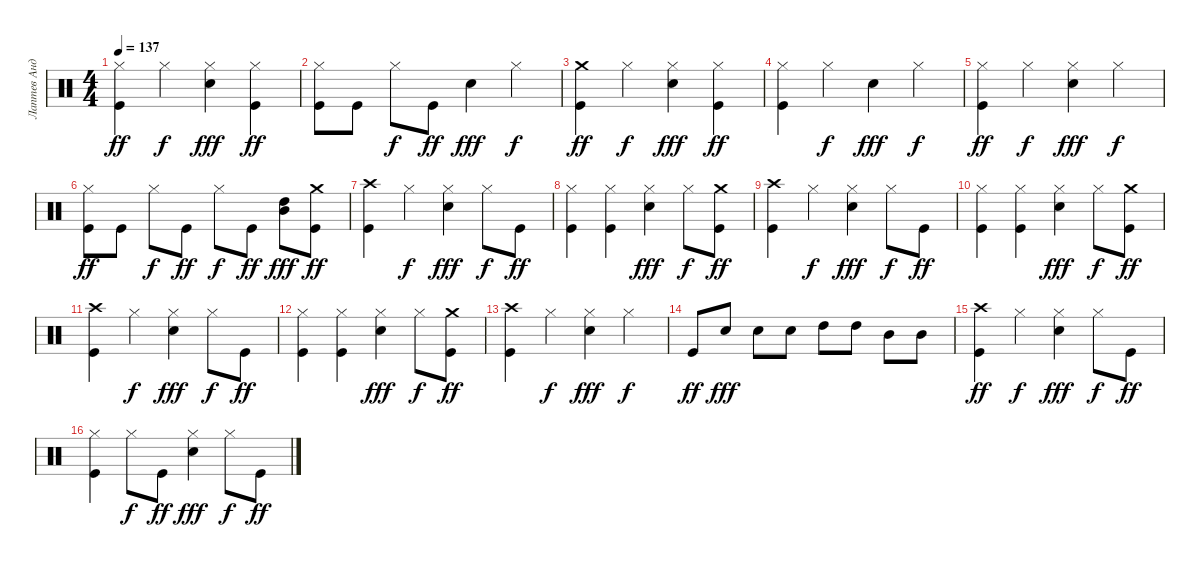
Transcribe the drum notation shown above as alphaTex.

\track ("Лаптев Андрей" "Лаптев Анд") {instrument percussion}
\staff {score}
\articulation defaults
\ts (4 4)
\tempo 137
\clef neutral
\ks c
("Hi-Hat (closed)" "Kick (hit)").4{dy ff} "Hi-Hat (closed)".4{dy f} ("Snare (hit) 2" "Hi-Hat (closed)").4{dy fff} ("Kick (hit)" "Hi-Hat (closed)").4{dy ff} |
("Kick (hit)" "Hi-Hat (closed)").8 "Kick (hit)".8 "Hi-Hat (closed)".8{dy f} "Kick (hit)".8{dy ff} "Snare (hit) 2".4{dy fff} "Hi-Hat (closed)".4{dy f} |
("Kick (hit)" "Crash medium (hit)").4{dy ff} "Hi-Hat (closed)".4{dy f} ("Snare (hit) 2" "Hi-Hat (closed)").4{dy fff} ("Kick (hit)" "Hi-Hat (closed)").4{dy ff} |
("Kick (hit)" "Hi-Hat (closed)").4 "Hi-Hat (closed)".4{dy f} "Snare (hit) 2".4{dy fff} "Hi-Hat (closed)".4{dy f} |
("Kick (hit)" "Hi-Hat (closed)").4{dy ff} "Hi-Hat (closed)".4{dy f} ("Snare (hit) 2" "Hi-Hat (closed)").4{dy fff} "Hi-Hat (closed)".4{dy f} |
("Kick (hit)" "Hi-Hat (closed)").8{dy ff} "Kick (hit)".8 "Hi-Hat (closed)".8{dy f} "Kick (hit)".8{dy ff} "Hi-Hat (closed)".8{dy f} "Kick (hit)".8{dy ff} ("High Tom (hit)" "Mid Tom (hit)").8{dy fff} ("Crash medium (hit)" "Kick (hit)").8{dy ff} |
("Kick (hit)" "Crash high (hit)").4 "Hi-Hat (closed)".4{dy f} ("Snare (hit) 2" "Hi-Hat (closed)").4{dy fff} "Hi-Hat (closed)".8{dy f} "Kick (hit)".8{dy ff} |
("Kick (hit)" "Hi-Hat (closed)").4 ("Kick (hit)" "Hi-Hat (closed)").4 ("Snare (hit) 2" "Hi-Hat (closed)").4{dy fff} "Hi-Hat (closed)".8{dy f} ("Crash medium (hit)" "Kick (hit)").8{dy ff} |
("Kick (hit)" "Crash high (hit)").4 "Hi-Hat (closed)".4{dy f} ("Snare (hit) 2" "Hi-Hat (closed)").4{dy fff} "Hi-Hat (closed)".8{dy f} "Kick (hit)".8{dy ff} |
("Kick (hit)" "Hi-Hat (closed)").4 ("Kick (hit)" "Hi-Hat (closed)").4 ("Snare (hit) 2" "Hi-Hat (closed)").4{dy fff} "Hi-Hat (closed)".8{dy f} ("Crash medium (hit)" "Kick (hit)").8{dy ff} |
("Kick (hit)" "Crash high (hit)").4 "Hi-Hat (closed)".4{dy f} ("Snare (hit) 2" "Hi-Hat (closed)").4{dy fff} "Hi-Hat (closed)".8{dy f} "Kick (hit)".8{dy ff} |
("Kick (hit)" "Hi-Hat (closed)").4 ("Kick (hit)" "Hi-Hat (closed)").4 ("Snare (hit) 2" "Hi-Hat (closed)").4{dy fff} "Hi-Hat (closed)".8{dy f} ("Kick (hit)" "Crash medium (hit)").8{dy ff} |
("Crash high (hit)" "Kick (hit)").4 "Hi-Hat (closed)".4{dy f} ("Snare (hit) 2" "Hi-Hat (closed)").4{dy fff} "Hi-Hat (closed)".4{dy f} |
"Kick (hit)".8{dy ff} "Snare (hit) 2".8{dy fff} "Snare (hit) 2".8 "Snare (hit) 2".8 "High Tom (hit)".8 "High Tom (hit)".8 "Mid Tom (hit)".8 "Mid Tom (hit)".8 |
("Crash high (hit)" "Kick (hit)").4{dy ff} "Hi-Hat (closed)".4{dy f} ("Snare (hit) 2" "Hi-Hat (closed)").4{dy fff} "Hi-Hat (closed)".8{dy f} "Kick (hit)".8{dy ff} |
("Kick (hit)" "Hi-Hat (closed)").4 "Hi-Hat (closed)".8{dy f} "Kick (hit)".8{dy ff} ("Snare (hit) 2" "Hi-Hat (closed)").4{dy fff} "Hi-Hat (closed)".8{dy f} "Kick (hit)".8{dy ff}
